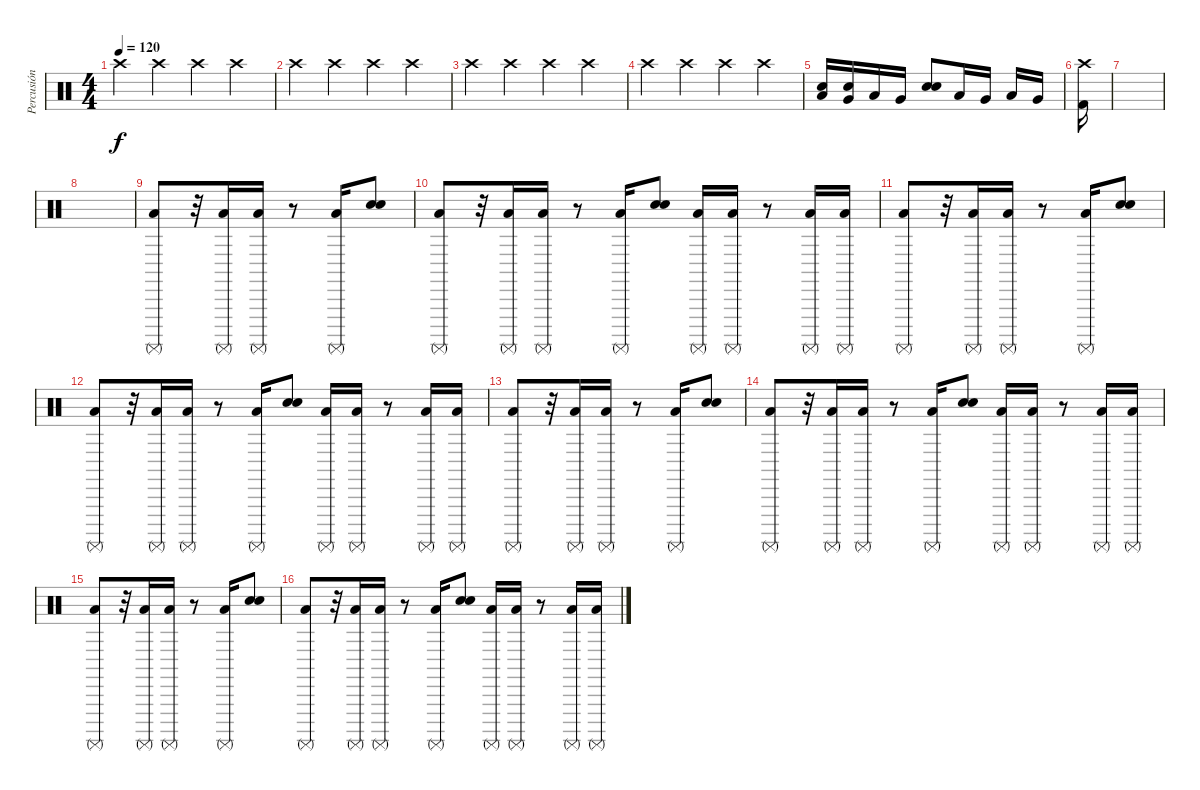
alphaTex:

\track ("Percusión" "Percusión") {instrument percussion}
\staff {score}
\articulation defaults
\ts (4 4)
\tempo 120
\clef neutral
\ks c "Crash high (hit)".4{dy f} "Crash high (hit)".4 "Crash high (hit)".4 "Crash high (hit)".4
|
"Crash high (hit)".4 "Crash high (hit)".4 "Crash high (hit)".4 "Crash high (hit)".4 |
"Crash high (hit)".4 "Crash high (hit)".4 "Crash high (hit)".4 "Crash high (hit)".4 |
"Crash high (hit)".4 "Crash high (hit)".4 "Crash high (hit)".4 "Crash high (hit)".4 |
("Low Floor Tom (hit)" "Electric Snare (hit)").16 ("Very Low Tom (hit)" "Electric Snare (hit)").16 "Low Floor Tom (hit)".16 "Very Low Tom (hit)".16 ("Electric Snare (hit)" "Snare (hit) 2").8 "Low Floor Tom (hit)".16 "Very Low Tom (hit)".16 "Low Floor Tom (hit)".16 "Very Low Tom (hit)".16 |
("Crash high (hit)" "Kick (hit) 2").16 |
|
|
("Surdo (mute)" "Low Tom (hit)").8 r.32 ("Surdo (mute)" "Low Tom (hit)").16 ("Surdo (mute)" "Low Tom (hit)").16 r.8 ("Surdo (mute)" "Low Tom (hit)").16 ("Electric Snare (hit)" "Snare (hit) 2").8 |
("Surdo (mute)" "Low Tom (hit)").8 r.32 ("Surdo (mute)" "Low Tom (hit)").16 ("Surdo (mute)" "Low Tom (hit)").16 r.8 ("Surdo (mute)" "Low Tom (hit)").16 ("Electric Snare (hit)" "Snare (hit) 2").8 ("Surdo (mute)" "Low Tom (hit)").16 ("Surdo (mute)" "Low Tom (hit)").16 r.8 ("Surdo (mute)" "Low Tom (hit)").16 ("Surdo (mute)" "Low Tom (hit)").16 |
("Surdo (mute)" "Low Tom (hit)").8 r.32 ("Surdo (mute)" "Low Tom (hit)").16 ("Surdo (mute)" "Low Tom (hit)").16 r.8 ("Surdo (mute)" "Low Tom (hit)").16 ("Electric Snare (hit)" "Snare (hit) 2").8 |
("Surdo (mute)" "Low Tom (hit)").8 r.32 ("Surdo (mute)" "Low Tom (hit)").16 ("Surdo (mute)" "Low Tom (hit)").16 r.8 ("Surdo (mute)" "Low Tom (hit)").16 ("Electric Snare (hit)" "Snare (hit) 2").8 ("Surdo (mute)" "Low Tom (hit)").16 ("Surdo (mute)" "Low Tom (hit)").16 r.8 ("Surdo (mute)" "Low Tom (hit)").16 ("Surdo (mute)" "Low Tom (hit)").16 |
("Surdo (mute)" "Low Tom (hit)").8 r.32 ("Surdo (mute)" "Low Tom (hit)").16 ("Surdo (mute)" "Low Tom (hit)").16 r.8 ("Surdo (mute)" "Low Tom (hit)").16 ("Electric Snare (hit)" "Snare (hit) 2").8 |
("Surdo (mute)" "Low Tom (hit)").8 r.32 ("Surdo (mute)" "Low Tom (hit)").16 ("Surdo (mute)" "Low Tom (hit)").16 r.8 ("Surdo (mute)" "Low Tom (hit)").16 ("Electric Snare (hit)" "Snare (hit) 2").8 ("Surdo (mute)" "Low Tom (hit)").16 ("Surdo (mute)" "Low Tom (hit)").16 r.8 ("Surdo (mute)" "Low Tom (hit)").16 ("Surdo (mute)" "Low Tom (hit)").16 |
("Surdo (mute)" "Low Tom (hit)").8 r.32 ("Surdo (mute)" "Low Tom (hit)").16 ("Surdo (mute)" "Low Tom (hit)").16 r.8 ("Surdo (mute)" "Low Tom (hit)").16 ("Electric Snare (hit)" "Snare (hit) 2").8 |
("Surdo (mute)" "Low Tom (hit)").8 r.32 ("Surdo (mute)" "Low Tom (hit)").16 ("Surdo (mute)" "Low Tom (hit)").16 r.8 ("Surdo (mute)" "Low Tom (hit)").16 ("Electric Snare (hit)" "Snare (hit) 2").8 ("Surdo (mute)" "Low Tom (hit)").16 ("Surdo (mute)" "Low Tom (hit)").16 r.8 ("Surdo (mute)" "Low Tom (hit)").16 ("Surdo (mute)" "Low Tom (hit)").16
